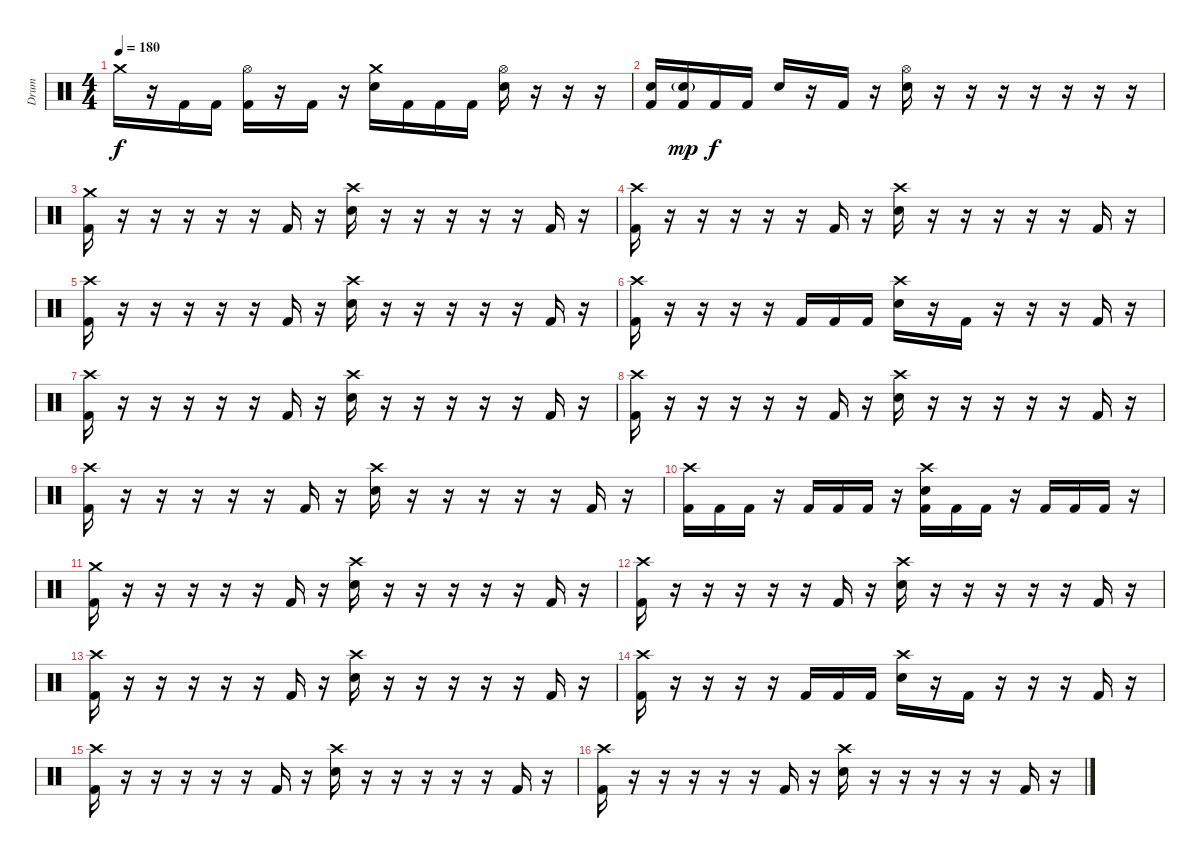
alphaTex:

\track ("Drum" "Drum") {instrument percussion}
\staff {score}
\articulation defaults
\ts (4 4)
\tempo 180
\clef neutral
\ks c "Crash medium (hit)".16{dy f}
r.16 "Kick (hit) 2".16 "Kick (hit) 2".16 ("Hi-Hat (open)" "Kick (hit) 2").16 r.16 "Kick (hit) 2".16 r.16 ("Crash medium (hit)" "Electric Snare (hit)").16 "Kick (hit) 2".16 "Kick (hit) 2".16 "Kick (hit) 2".16 ("Hi-Hat (open)" "Electric Snare (hit)").16 r.16 r.16 r.16 |
("Electric Snare (hit)" "Kick (hit) 2").16 ("Electric Snare (hit)"{g} "Kick (hit) 2").16{dy mp} "Kick (hit) 2".16{dy f} "Kick (hit) 2".16 "Electric Snare (hit)".16 r.16 "Kick (hit) 2".16 r.16 ("Electric Snare (hit)" "Hi-Hat (open)").16 r.16 r.16 r.16 r.16 r.16 r.16 r.16 |
("Crash medium (hit)" "Kick (hit) 2").16 r.16 r.16 r.16 r.16 r.16 "Kick (hit) 2".16 r.16 ("Crash high (hit)" "Electric Snare (hit)").16 r.16 r.16 r.16 r.16 r.16 "Kick (hit) 2".16 r.16 |
("Crash high (hit)" "Kick (hit) 2").16 r.16 r.16 r.16 r.16 r.16 "Kick (hit) 2".16 r.16 ("Crash high (hit)" "Electric Snare (hit)").16 r.16 r.16 r.16 r.16 r.16 "Kick (hit) 2".16 r.16 |
("Crash high (hit)" "Kick (hit) 2").16 r.16 r.16 r.16 r.16 r.16 "Kick (hit) 2".16 r.16 ("Crash high (hit)" "Electric Snare (hit)").16 r.16 r.16 r.16 r.16 r.16 "Kick (hit) 2".16 r.16 |
("Crash high (hit)" "Kick (hit) 2").16 r.16 r.16 r.16 r.16 "Kick (hit) 2".16 "Kick (hit) 2".16 "Kick (hit) 2".16 ("Crash high (hit)" "Electric Snare (hit)").16 r.16 "Kick (hit) 2".16 r.16 r.16 r.16 "Kick (hit) 2".16 r.16 |
("Crash high (hit)" "Kick (hit) 2").16 r.16 r.16 r.16 r.16 r.16 "Kick (hit) 2".16 r.16 ("Crash high (hit)" "Electric Snare (hit)").16 r.16 r.16 r.16 r.16 r.16 "Kick (hit) 2".16 r.16 |
("Crash high (hit)" "Kick (hit) 2").16 r.16 r.16 r.16 r.16 r.16 "Kick (hit) 2".16 r.16 ("Crash high (hit)" "Electric Snare (hit)").16 r.16 r.16 r.16 r.16 r.16 "Kick (hit) 2".16 r.16 |
("Crash high (hit)" "Kick (hit) 2").16 r.16 r.16 r.16 r.16 r.16 "Kick (hit) 2".16 r.16 ("Crash high (hit)" "Electric Snare (hit)").16 r.16 r.16 r.16 r.16 r.16 "Kick (hit) 2".16 r.16 |
("Crash high (hit)" "Kick (hit) 2").16 "Kick (hit) 2".16 "Kick (hit) 2".16 r.16 "Kick (hit) 2".16 "Kick (hit) 2".16 "Kick (hit) 2".16 r.16 ("Crash high (hit)" "Electric Snare (hit)" "Kick (hit) 2").16 "Kick (hit) 2".16 "Kick (hit) 2".16 r.16 "Kick (hit) 2".16 "Kick (hit) 2".16 "Kick (hit) 2".16 r.16 |
("Crash medium (hit)" "Kick (hit) 2").16 r.16 r.16 r.16 r.16 r.16 "Kick (hit) 2".16 r.16 ("Crash high (hit)" "Electric Snare (hit)").16 r.16 r.16 r.16 r.16 r.16 "Kick (hit) 2".16 r.16 |
("Crash high (hit)" "Kick (hit) 2").16 r.16 r.16 r.16 r.16 r.16 "Kick (hit) 2".16 r.16 ("Crash high (hit)" "Electric Snare (hit)").16 r.16 r.16 r.16 r.16 r.16 "Kick (hit) 2".16 r.16 |
("Crash high (hit)" "Kick (hit) 2").16 r.16 r.16 r.16 r.16 r.16 "Kick (hit) 2".16 r.16 ("Crash high (hit)" "Electric Snare (hit)").16 r.16 r.16 r.16 r.16 r.16 "Kick (hit) 2".16 r.16 |
("Crash high (hit)" "Kick (hit) 2").16 r.16 r.16 r.16 r.16 "Kick (hit) 2".16 "Kick (hit) 2".16 "Kick (hit) 2".16 ("Crash high (hit)" "Electric Snare (hit)").16 r.16 "Kick (hit) 2".16 r.16 r.16 r.16 "Kick (hit) 2".16 r.16 |
("Crash high (hit)" "Kick (hit) 2").16 r.16 r.16 r.16 r.16 r.16 "Kick (hit) 2".16 r.16 ("Crash high (hit)" "Electric Snare (hit)").16 r.16 r.16 r.16 r.16 r.16 "Kick (hit) 2".16 r.16 |
("Crash high (hit)" "Kick (hit) 2").16 r.16 r.16 r.16 r.16 r.16 "Kick (hit) 2".16 r.16 ("Crash high (hit)" "Electric Snare (hit)").16 r.16 r.16 r.16 r.16 r.16 "Kick (hit) 2".16 r.16
